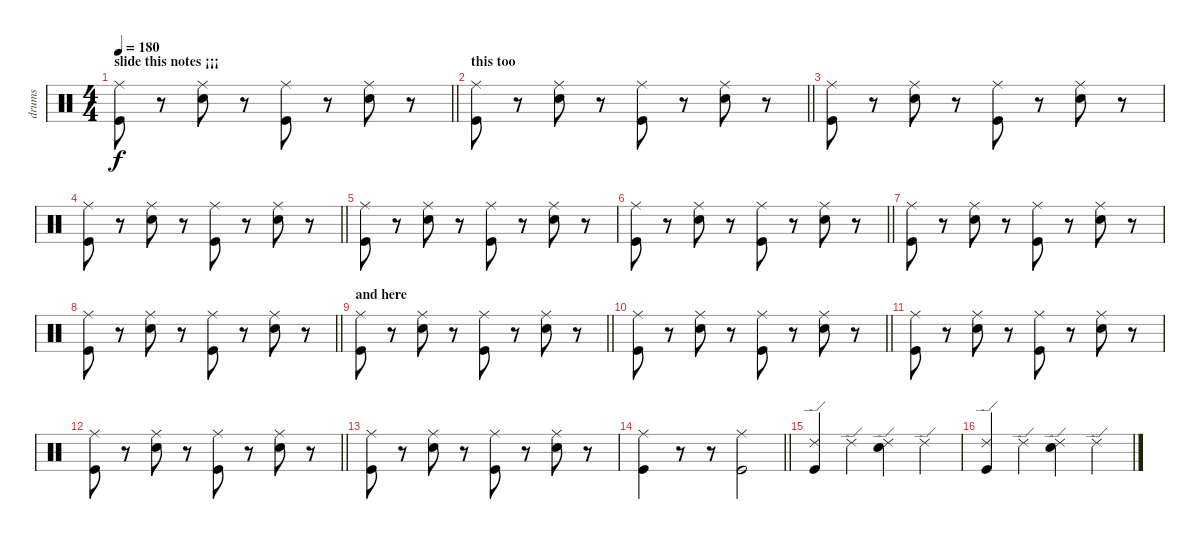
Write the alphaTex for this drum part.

\track ("drums" "drums") {instrument percussion}
\staff {score}
\articulation defaults
\ts (4 4)
\section ("" "slide this notes ¡¡¡")
\tempo 180
\clef neutral
\barLineRight lightlight
\ks c
("Ride (middle)" "Kick (hit)").8{dy f} r.8 ("Ride (middle)" "Electric Snare (hit)").8 r.8 ("Ride (middle)" "Kick (hit)").8 r.8 ("Ride (middle)" "Electric Snare (hit)").8 r.8 |
\section ("" "this too")
\barLineRight lightlight
("Ride (middle)" "Kick (hit)").8 r.8 ("Ride (middle)" "Electric Snare (hit)").8 r.8 ("Ride (middle)" "Kick (hit)").8 r.8 ("Ride (middle)" "Electric Snare (hit)").8 r.8 |
("Ride (middle)" "Kick (hit)").8 r.8 ("Ride (middle)" "Electric Snare (hit)").8 r.8 ("Ride (middle)" "Kick (hit)").8 r.8 ("Ride (middle)" "Electric Snare (hit)").8 r.8 |
\barLineRight lightlight
("Ride (middle)" "Kick (hit)").8 r.8 ("Ride (middle)" "Electric Snare (hit)").8 r.8 ("Ride (middle)" "Kick (hit)").8 r.8 ("Ride (middle)" "Electric Snare (hit)").8 r.8 |
("Ride (middle)" "Kick (hit)").8 r.8 ("Ride (middle)" "Electric Snare (hit)").8 r.8 ("Ride (middle)" "Kick (hit)").8 r.8 ("Ride (middle)" "Electric Snare (hit)").8 r.8 |
\barLineRight lightlight
("Ride (middle)" "Kick (hit)").8 r.8 ("Ride (middle)" "Electric Snare (hit)").8 r.8 ("Ride (middle)" "Kick (hit)").8 r.8 ("Ride (middle)" "Electric Snare (hit)").8 r.8 |
("Ride (middle)" "Kick (hit)").8 r.8 ("Ride (middle)" "Electric Snare (hit)").8 r.8 ("Ride (middle)" "Kick (hit)").8 r.8 ("Ride (middle)" "Electric Snare (hit)").8 r.8 |
\barLineRight lightlight
("Ride (middle)" "Kick (hit)").8 r.8 ("Ride (middle)" "Electric Snare (hit)").8 r.8 ("Ride (middle)" "Kick (hit)").8 r.8 ("Ride (middle)" "Electric Snare (hit)").8 r.8 |
\section ("" "and here")
\barLineRight lightlight
("Ride (middle)" "Kick (hit)").8 r.8 ("Ride (middle)" "Electric Snare (hit)").8 r.8 ("Ride (middle)" "Kick (hit)").8 r.8 ("Ride (middle)" "Electric Snare (hit)").8 r.8 |
\barLineRight lightlight
("Ride (middle)" "Kick (hit)").8 r.8 ("Ride (middle)" "Electric Snare (hit)").8 r.8 ("Ride (middle)" "Kick (hit)").8 r.8 ("Ride (middle)" "Electric Snare (hit)").8 r.8 |
("Ride (middle)" "Kick (hit)").8 r.8 ("Ride (middle)" "Electric Snare (hit)").8 r.8 ("Ride (middle)" "Kick (hit)").8 r.8 ("Ride (middle)" "Electric Snare (hit)").8 r.8 |
\barLineRight lightlight
("Ride (middle)" "Kick (hit)").8 r.8 ("Ride (middle)" "Electric Snare (hit)").8 r.8 ("Ride (middle)" "Kick (hit)").8 r.8 ("Ride (middle)" "Electric Snare (hit)").8 r.8 |
("Ride (middle)" "Kick (hit)").8 r.8 ("Ride (middle)" "Electric Snare (hit)").8 r.8 ("Ride (middle)" "Kick (hit)").8 r.8 ("Ride (middle)" "Electric Snare (hit)").8 r.8 |
\barLineRight lightlight
("Ride (middle)" "Kick (hit)").4 r.8 r.8 ("Ride (middle)" "Kick (hit)").2 |
("Ride (edge) 2" "Kick (hit)").4 "Ride (edge) 2".4 ("Ride (edge) 2" "Electric Snare (hit)").4 "Ride (edge) 2".4 |
("Ride (edge) 2" "Kick (hit)").4 "Ride (edge) 2".4 ("Ride (edge) 2" "Electric Snare (hit)").4 "Ride (edge) 2".4
